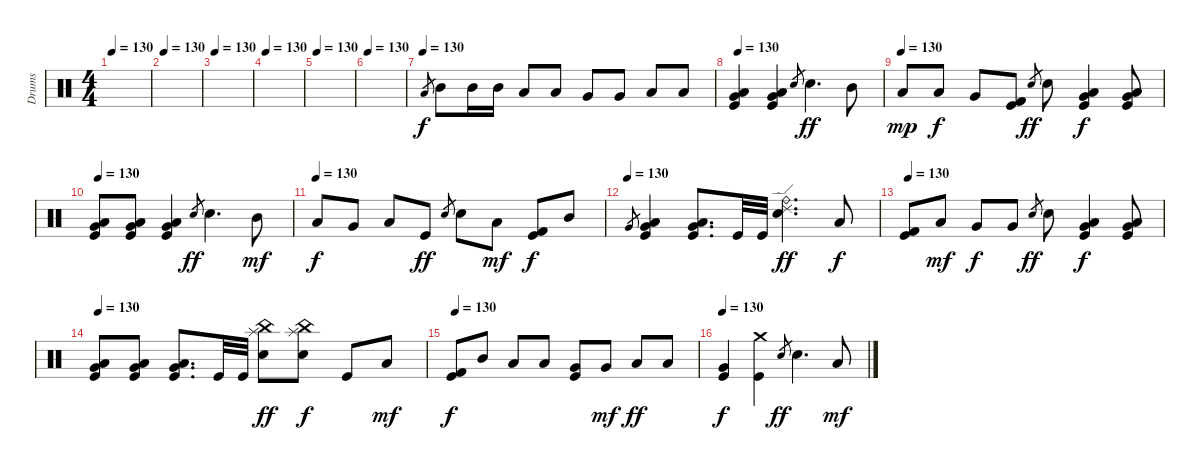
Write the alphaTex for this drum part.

\track ("Drums" "Drums") {instrument percussion}
\staff {score}
\articulation defaults
\ts (4 4)
\tempo 130
\clef neutral
\ks c
|
\tempo 130
|
\tempo 130
|
\tempo 130
|
\tempo 130
|
\tempo 130
|
\tempo (130)
"Low Tom (hit)".8{gr} "Mid Tom (hit)".8 "Mid Tom (hit)".16 "Mid Tom (hit)".16 "Low Tom (hit)".8 "Low Tom (hit)".8 "Very Low Tom (hit)".8 "Very Low Tom (hit)".8 "Low Floor Tom (hit)".8 "Low Floor Tom (hit)".8 |
\tempo 130
("Very Low Tom (hit)" "Low Floor Tom (hit)" "Kick (hit)").4 ("Very Low Tom (hit)" "Low Floor Tom (hit)" "Kick (hit)").4 "Electric Snare (hit)".8{gr} "Electric Snare (hit)".4{d dy ff} "Mid Tom (hit)".8 |
\tempo (130)
"Low Tom (hit)".8{dy mp} "Low Tom (hit)".8{dy f} "Very Low Tom (hit)".8 ("Kick (hit) 2" "Kick (hit)").8 "Electric Snare (hit)".8{gr dy ff} "Electric Snare (hit)".8 ("Very Low Tom (hit)" "Low Floor Tom (hit)" "Kick (hit)").4{dy f} ("Very Low Tom (hit)" "Low Floor Tom (hit)" "Kick (hit)").8 |
\tempo 130
("Very Low Tom (hit)" "Low Floor Tom (hit)" "Kick (hit)").8 ("Very Low Tom (hit)" "Low Floor Tom (hit)" "Kick (hit)").8 ("Very Low Tom (hit)" "Low Floor Tom (hit)" "Kick (hit)").4 "Electric Snare (hit)".8{gr dy ff} "Electric Snare (hit)".4{d} "Mid Tom (hit)".8{dy mf} |
\tempo (130)
"Low Tom (hit)".8{dy f} "Very Low Tom (hit)".8 "Low Floor Tom (hit)".8 "Kick (hit)".8{dy ff} "Electric Snare (hit)".8{gr} "Electric Snare (hit)".8 "Low Tom (hit)".8{dy mf} ("Kick (hit) 2" "Kick (hit)").8{dy f} "Mid Tom (hit)".8 |
\tempo (130)
"Very Low Tom (hit)".8{gr} ("Very Low Tom (hit)" "Low Floor Tom (hit)" "Kick (hit)").4 ("Very Low Tom (hit)" "Low Floor Tom (hit)" "Kick (hit)").8{d} "Kick (hit)".32 "Kick (hit)".32 ("Ride (edge) 2" "Ride (bell)" "Electric Snare (hit)").4{d dy ff} "Low Tom (hit)".8{dy f} |
\tempo 130
("Kick (hit) 2" "Kick (hit)").8 "Low Tom (hit)".8{dy mf} "Very Low Tom (hit)".8{dy f} "Very Low Tom (hit)".8 "Electric Snare (hit)".8{gr dy ff} "Electric Snare (hit)".8 ("Low Floor Tom (hit)" "Very Low Tom (hit)" "Kick (hit)").4{dy f} ("Low Floor Tom (hit)" "Very Low Tom (hit)" "Kick (hit)").8 |
\tempo 130
("Low Floor Tom (hit)" "Very Low Tom (hit)" "Kick (hit)").8 ("Low Floor Tom (hit)" "Very Low Tom (hit)" "Kick (hit)").8 ("Low Floor Tom (hit)" "Very Low Tom (hit)" "Kick (hit)").8{d} "Kick (hit)".32 "Kick (hit)".32 ("Splash (hit)" "China (hit)" "Electric Snare (hit)").8{dy ff} ("Splash (hit)" "China (hit)" "Electric Snare (hit)").8{dy f} "Kick (hit)".8 "Low Tom (hit)".8{dy mf} |
\tempo 130
("Kick (hit) 2" "Kick (hit)").8{dy f} "Mid Tom (hit)".8 "Low Tom (hit)".8 "Low Tom (hit)".8 ("Very Low Tom (hit)" "Kick (hit)").8 "Very Low Tom (hit)".8{dy mf} "Low Floor Tom (hit)".8{dy ff} "Low Floor Tom (hit)".8 |
\tempo 130
("Very Low Tom (hit)" "Kick (hit)").4{dy f} ("Crash medium (hit)" "Kick (hit)").4 "Electric Snare (hit)".8{gr dy ff} "Electric Snare (hit)".4{d} "Low Tom (hit)".8{dy mf}
